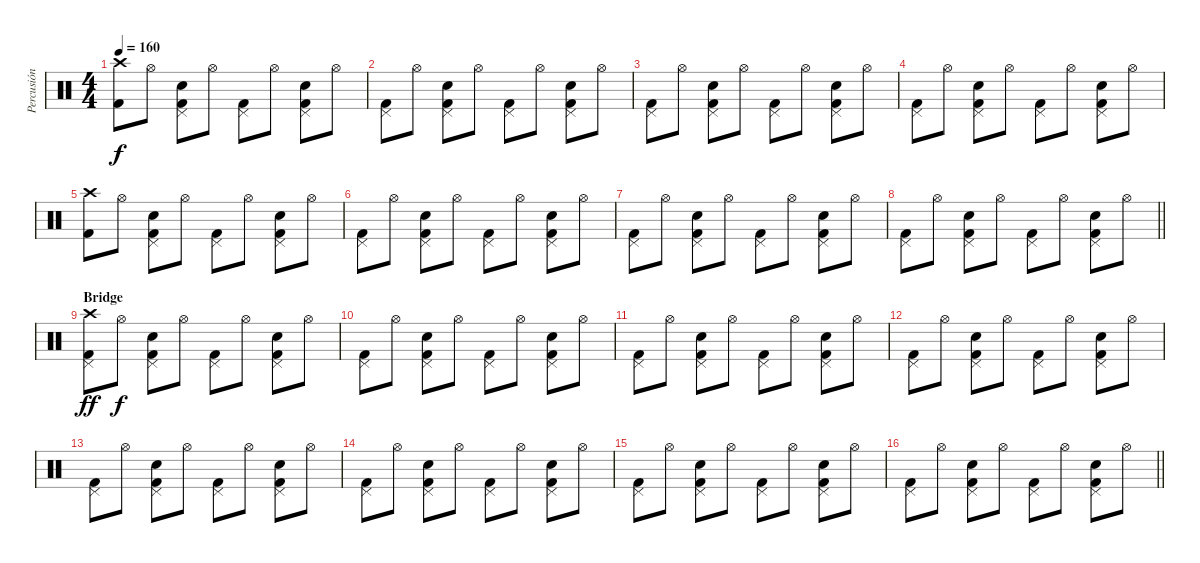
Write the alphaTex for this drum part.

\track ("Percusión" "Percusión") {instrument percussion}
\staff {score}
\articulation defaults
\ts (4 4)
\tempo 160
\clef neutral
\ks c
("Crash high (hit)" "Kick (hit) 2").8{dy f} "Hi-Hat (open)".8 ("Pedal Hi-Hat (hit)" "Snare (hit) 2" "Kick (hit) 2").8 "Hi-Hat (open)".8 ("Pedal Hi-Hat (hit)" "Kick (hit) 2").8 "Hi-Hat (open)".8 ("Pedal Hi-Hat (hit)" "Snare (hit) 2" "Kick (hit) 2").8 "Hi-Hat (open)".8 |
("Pedal Hi-Hat (hit)" "Kick (hit) 2").8 "Hi-Hat (open)".8 ("Pedal Hi-Hat (hit)" "Snare (hit) 2" "Kick (hit) 2").8 "Hi-Hat (open)".8 ("Pedal Hi-Hat (hit)" "Kick (hit) 2").8 "Hi-Hat (open)".8 ("Pedal Hi-Hat (hit)" "Snare (hit) 2" "Kick (hit) 2").8 "Hi-Hat (open)".8 |
("Pedal Hi-Hat (hit)" "Kick (hit) 2").8 "Hi-Hat (open)".8 ("Pedal Hi-Hat (hit)" "Snare (hit) 2" "Kick (hit) 2").8 "Hi-Hat (open)".8 ("Pedal Hi-Hat (hit)" "Kick (hit) 2").8 "Hi-Hat (open)".8 ("Pedal Hi-Hat (hit)" "Snare (hit) 2" "Kick (hit) 2").8 "Hi-Hat (open)".8 |
("Pedal Hi-Hat (hit)" "Kick (hit) 2").8 "Hi-Hat (open)".8 ("Pedal Hi-Hat (hit)" "Snare (hit) 2" "Kick (hit) 2").8 "Hi-Hat (open)".8 ("Pedal Hi-Hat (hit)" "Kick (hit) 2").8 "Hi-Hat (open)".8 ("Pedal Hi-Hat (hit)" "Snare (hit) 2" "Kick (hit) 2").8 "Hi-Hat (open)".8 |
("Crash high (hit)" "Kick (hit) 2").8 "Hi-Hat (open)".8 ("Pedal Hi-Hat (hit)" "Snare (hit) 2" "Kick (hit) 2").8 "Hi-Hat (open)".8 ("Pedal Hi-Hat (hit)" "Kick (hit) 2").8 "Hi-Hat (open)".8 ("Pedal Hi-Hat (hit)" "Snare (hit) 2" "Kick (hit) 2").8 "Hi-Hat (open)".8 |
("Pedal Hi-Hat (hit)" "Kick (hit) 2").8 "Hi-Hat (open)".8 ("Pedal Hi-Hat (hit)" "Snare (hit) 2" "Kick (hit) 2").8 "Hi-Hat (open)".8 ("Pedal Hi-Hat (hit)" "Kick (hit) 2").8 "Hi-Hat (open)".8 ("Pedal Hi-Hat (hit)" "Snare (hit) 2" "Kick (hit) 2").8 "Hi-Hat (open)".8 |
("Pedal Hi-Hat (hit)" "Kick (hit) 2").8 "Hi-Hat (open)".8 ("Pedal Hi-Hat (hit)" "Snare (hit) 2" "Kick (hit) 2").8 "Hi-Hat (open)".8 ("Pedal Hi-Hat (hit)" "Kick (hit) 2").8 "Hi-Hat (open)".8 ("Pedal Hi-Hat (hit)" "Snare (hit) 2" "Kick (hit) 2").8 "Hi-Hat (open)".8 |
\barLineRight lightlight
("Pedal Hi-Hat (hit)" "Kick (hit) 2").8 "Hi-Hat (open)".8 ("Pedal Hi-Hat (hit)" "Snare (hit) 2" "Kick (hit) 2").8 "Hi-Hat (open)".8 ("Pedal Hi-Hat (hit)" "Kick (hit) 2").8 "Hi-Hat (open)".8 ("Pedal Hi-Hat (hit)" "Snare (hit) 2" "Kick (hit) 2").8 "Hi-Hat (open)".8 |
\section ("" "Bridge")
("Crash high (hit)" "Pedal Hi-Hat (hit)" "Kick (hit) 2").8{dy ff} "Hi-Hat (open)".8{dy f} ("Pedal Hi-Hat (hit)" "Snare (hit) 2" "Kick (hit) 2").8 "Hi-Hat (open)".8 ("Pedal Hi-Hat (hit)" "Kick (hit) 2").8 "Hi-Hat (open)".8 ("Pedal Hi-Hat (hit)" "Snare (hit) 2" "Kick (hit) 2").8 "Hi-Hat (open)".8 |
("Pedal Hi-Hat (hit)" "Kick (hit) 2").8 "Hi-Hat (open)".8 ("Pedal Hi-Hat (hit)" "Snare (hit) 2" "Kick (hit) 2").8 "Hi-Hat (open)".8 ("Pedal Hi-Hat (hit)" "Kick (hit) 2").8 "Hi-Hat (open)".8 ("Pedal Hi-Hat (hit)" "Snare (hit) 2" "Kick (hit) 2").8 "Hi-Hat (open)".8 |
("Pedal Hi-Hat (hit)" "Kick (hit) 2").8 "Hi-Hat (open)".8 ("Pedal Hi-Hat (hit)" "Snare (hit) 2" "Kick (hit) 2").8 "Hi-Hat (open)".8 ("Pedal Hi-Hat (hit)" "Kick (hit) 2").8 "Hi-Hat (open)".8 ("Pedal Hi-Hat (hit)" "Snare (hit) 2" "Kick (hit) 2").8 "Hi-Hat (open)".8 |
("Pedal Hi-Hat (hit)" "Kick (hit) 2").8 "Hi-Hat (open)".8 ("Pedal Hi-Hat (hit)" "Snare (hit) 2" "Kick (hit) 2").8 "Hi-Hat (open)".8 ("Pedal Hi-Hat (hit)" "Kick (hit) 2").8 "Hi-Hat (open)".8 ("Pedal Hi-Hat (hit)" "Snare (hit) 2" "Kick (hit) 2").8 "Hi-Hat (open)".8 |
("Pedal Hi-Hat (hit)" "Kick (hit) 2").8 "Hi-Hat (open)".8 ("Pedal Hi-Hat (hit)" "Snare (hit) 2" "Kick (hit) 2").8 "Hi-Hat (open)".8 ("Pedal Hi-Hat (hit)" "Kick (hit) 2").8 "Hi-Hat (open)".8 ("Pedal Hi-Hat (hit)" "Snare (hit) 2" "Kick (hit) 2").8 "Hi-Hat (open)".8 |
("Pedal Hi-Hat (hit)" "Kick (hit) 2").8 "Hi-Hat (open)".8 ("Pedal Hi-Hat (hit)" "Snare (hit) 2" "Kick (hit) 2").8 "Hi-Hat (open)".8 ("Pedal Hi-Hat (hit)" "Kick (hit) 2").8 "Hi-Hat (open)".8 ("Pedal Hi-Hat (hit)" "Snare (hit) 2" "Kick (hit) 2").8 "Hi-Hat (open)".8 |
("Pedal Hi-Hat (hit)" "Kick (hit) 2").8 "Hi-Hat (open)".8 ("Pedal Hi-Hat (hit)" "Snare (hit) 2" "Kick (hit) 2").8 "Hi-Hat (open)".8 ("Pedal Hi-Hat (hit)" "Kick (hit) 2").8 "Hi-Hat (open)".8 ("Pedal Hi-Hat (hit)" "Snare (hit) 2" "Kick (hit) 2").8 "Hi-Hat (open)".8 |
\barLineRight lightlight
("Pedal Hi-Hat (hit)" "Kick (hit) 2").8 "Hi-Hat (open)".8 ("Pedal Hi-Hat (hit)" "Snare (hit) 2" "Kick (hit) 2").8 "Hi-Hat (open)".8 ("Pedal Hi-Hat (hit)" "Kick (hit) 2").8 "Hi-Hat (open)".8 ("Pedal Hi-Hat (hit)" "Snare (hit) 2" "Kick (hit) 2").8 "Hi-Hat (open)".8
